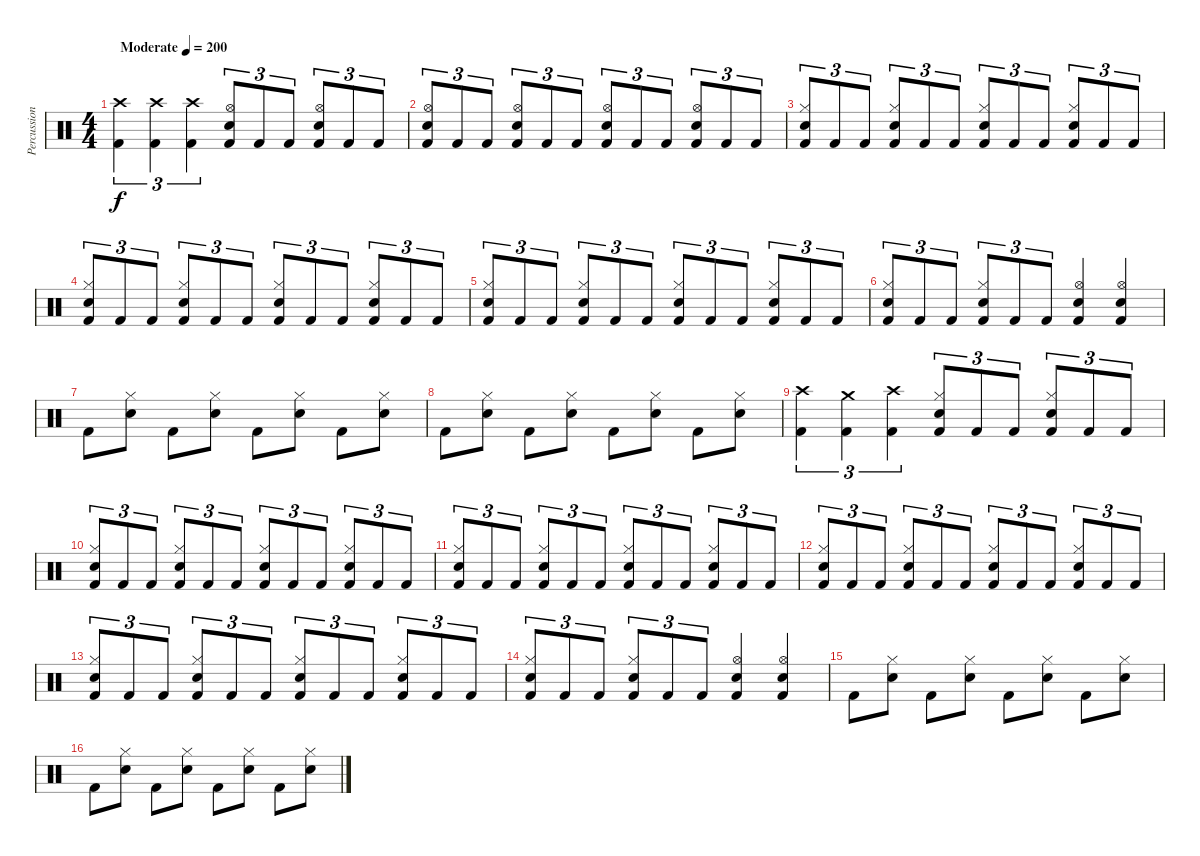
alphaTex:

\track ("Percussion" "Percussion") {instrument percussion}
\staff {score}
\articulation defaults
\ts (4 4)
\tempo (200 "Moderate")
\clef neutral
\ks c
("Crash high (hit)" "Kick (hit) 2").4{tu (3 2) dy f} ("Crash high (hit)" "Kick (hit) 2").4{tu (3 2)} ("Crash high (hit)" "Kick (hit) 2").4{tu (3 2)} ("Hi-Hat (open)" "Electric Snare (hit)" "Kick (hit) 2").8{tu (3 2)} "Kick (hit) 2".8{tu (3 2)} "Kick (hit) 2".8{tu (3 2)} ("Hi-Hat (open)" "Electric Snare (hit)" "Kick (hit) 2").8{tu (3 2)} "Kick (hit) 2".8{tu (3 2)} "Kick (hit) 2".8{tu (3 2)} |
("Hi-Hat (open)" "Electric Snare (hit)" "Kick (hit) 2").8{tu (3 2)} "Kick (hit) 2".8{tu (3 2)} "Kick (hit) 2".8{tu (3 2)} ("Hi-Hat (open)" "Electric Snare (hit)" "Kick (hit) 2").8{tu (3 2)} "Kick (hit) 2".8{tu (3 2)} "Kick (hit) 2".8{tu (3 2)} ("Hi-Hat (open)" "Electric Snare (hit)" "Kick (hit) 2").8{tu (3 2)} "Kick (hit) 2".8{tu (3 2)} "Kick (hit) 2".8{tu (3 2)} ("Hi-Hat (open)" "Electric Snare (hit)" "Kick (hit) 2").8{tu (3 2)} "Kick (hit) 2".8{tu (3 2)} "Kick (hit) 2".8{tu (3 2)} |
("Hi-Hat (closed)" "Snare (hit) 2" "Kick (hit) 2").8{tu (3 2)} "Kick (hit) 2".8{tu (3 2)} "Kick (hit) 2".8{tu (3 2)} ("Hi-Hat (closed)" "Snare (hit) 2" "Kick (hit) 2").8{tu (3 2)} "Kick (hit) 2".8{tu (3 2)} "Kick (hit) 2".8{tu (3 2)} ("Hi-Hat (closed)" "Snare (hit) 2" "Kick (hit) 2").8{tu (3 2)} "Kick (hit) 2".8{tu (3 2)} "Kick (hit) 2".8{tu (3 2)} ("Hi-Hat (closed)" "Snare (hit) 2" "Kick (hit) 2").8{tu (3 2)} "Kick (hit) 2".8{tu (3 2)} "Kick (hit) 2".8{tu (3 2)} |
("Hi-Hat (closed)" "Snare (hit) 2" "Kick (hit) 2").8{tu (3 2)} "Kick (hit) 2".8{tu (3 2)} "Kick (hit) 2".8{tu (3 2)} ("Hi-Hat (closed)" "Snare (hit) 2" "Kick (hit) 2").8{tu (3 2)} "Kick (hit) 2".8{tu (3 2)} "Kick (hit) 2".8{tu (3 2)} ("Hi-Hat (closed)" "Snare (hit) 2" "Kick (hit) 2").8{tu (3 2)} "Kick (hit) 2".8{tu (3 2)} "Kick (hit) 2".8{tu (3 2)} ("Hi-Hat (closed)" "Snare (hit) 2" "Kick (hit) 2").8{tu (3 2)} "Kick (hit) 2".8{tu (3 2)} "Kick (hit) 2".8{tu (3 2)} |
("Hi-Hat (closed)" "Snare (hit) 2" "Kick (hit) 2").8{tu (3 2)} "Kick (hit) 2".8{tu (3 2)} "Kick (hit) 2".8{tu (3 2)} ("Hi-Hat (closed)" "Snare (hit) 2" "Kick (hit) 2").8{tu (3 2)} "Kick (hit) 2".8{tu (3 2)} "Kick (hit) 2".8{tu (3 2)} ("Hi-Hat (closed)" "Snare (hit) 2" "Kick (hit) 2").8{tu (3 2)} "Kick (hit) 2".8{tu (3 2)} "Kick (hit) 2".8{tu (3 2)} ("Hi-Hat (closed)" "Snare (hit) 2" "Kick (hit) 2").8{tu (3 2)} "Kick (hit) 2".8{tu (3 2)} "Kick (hit) 2".8{tu (3 2)} |
("Hi-Hat (closed)" "Snare (hit) 2" "Kick (hit) 2").8{tu (3 2)} "Kick (hit) 2".8{tu (3 2)} "Kick (hit) 2".8{tu (3 2)} ("Hi-Hat (closed)" "Snare (hit) 2" "Kick (hit) 2").8{tu (3 2)} "Kick (hit) 2".8{tu (3 2)} "Kick (hit) 2".8{tu (3 2)} ("Hi-Hat (open)" "Snare (hit) 2" "Kick (hit) 2").4 ("Hi-Hat (open)" "Snare (hit) 2" "Kick (hit) 2").4 |
"Kick (hit) 2".8 ("Hi-Hat (closed)" "Snare (hit) 2").8 "Kick (hit) 2".8 ("Hi-Hat (closed)" "Snare (hit) 2").8 "Kick (hit) 2".8 ("Hi-Hat (closed)" "Snare (hit) 2").8 "Kick (hit) 2".8 ("Hi-Hat (closed)" "Snare (hit) 2").8 |
"Kick (hit) 2".8 ("Hi-Hat (closed)" "Snare (hit) 2").8 "Kick (hit) 2".8 ("Hi-Hat (closed)" "Snare (hit) 2").8 "Kick (hit) 2".8 ("Hi-Hat (closed)" "Snare (hit) 2").8 "Kick (hit) 2".8 ("Hi-Hat (closed)" "Snare (hit) 2").8 |
("Crash high (hit)" "Kick (hit) 2").4{tu (3 2)} ("Crash medium (hit)" "Kick (hit) 2").4{tu (3 2)} ("Crash high (hit)" "Kick (hit) 2").4{tu (3 2)} ("Hi-Hat (closed)" "Snare (hit) 2" "Kick (hit) 2").8{tu (3 2)} "Kick (hit) 2".8{tu (3 2)} "Kick (hit) 2".8{tu (3 2)} ("Hi-Hat (closed)" "Snare (hit) 2" "Kick (hit) 2").8{tu (3 2)} "Kick (hit) 2".8{tu (3 2)} "Kick (hit) 2".8{tu (3 2)} |
("Hi-Hat (closed)" "Snare (hit) 2" "Kick (hit) 2").8{tu (3 2)} "Kick (hit) 2".8{tu (3 2)} "Kick (hit) 2".8{tu (3 2)} ("Hi-Hat (closed)" "Snare (hit) 2" "Kick (hit) 2").8{tu (3 2)} "Kick (hit) 2".8{tu (3 2)} "Kick (hit) 2".8{tu (3 2)} ("Hi-Hat (closed)" "Snare (hit) 2" "Kick (hit) 2").8{tu (3 2)} "Kick (hit) 2".8{tu (3 2)} "Kick (hit) 2".8{tu (3 2)} ("Hi-Hat (closed)" "Snare (hit) 2" "Kick (hit) 2").8{tu (3 2)} "Kick (hit) 2".8{tu (3 2)} "Kick (hit) 2".8{tu (3 2)} |
("Hi-Hat (closed)" "Snare (hit) 2" "Kick (hit) 2").8{tu (3 2)} "Kick (hit) 2".8{tu (3 2)} "Kick (hit) 2".8{tu (3 2)} ("Hi-Hat (closed)" "Snare (hit) 2" "Kick (hit) 2").8{tu (3 2)} "Kick (hit) 2".8{tu (3 2)} "Kick (hit) 2".8{tu (3 2)} ("Hi-Hat (closed)" "Snare (hit) 2" "Kick (hit) 2").8{tu (3 2)} "Kick (hit) 2".8{tu (3 2)} "Kick (hit) 2".8{tu (3 2)} ("Hi-Hat (closed)" "Snare (hit) 2" "Kick (hit) 2").8{tu (3 2)} "Kick (hit) 2".8{tu (3 2)} "Kick (hit) 2".8{tu (3 2)} |
("Hi-Hat (closed)" "Snare (hit) 2" "Kick (hit) 2").8{tu (3 2)} "Kick (hit) 2".8{tu (3 2)} "Kick (hit) 2".8{tu (3 2)} ("Hi-Hat (closed)" "Snare (hit) 2" "Kick (hit) 2").8{tu (3 2)} "Kick (hit) 2".8{tu (3 2)} "Kick (hit) 2".8{tu (3 2)} ("Hi-Hat (closed)" "Snare (hit) 2" "Kick (hit) 2").8{tu (3 2)} "Kick (hit) 2".8{tu (3 2)} "Kick (hit) 2".8{tu (3 2)} ("Hi-Hat (closed)" "Snare (hit) 2" "Kick (hit) 2").8{tu (3 2)} "Kick (hit) 2".8{tu (3 2)} "Kick (hit) 2".8{tu (3 2)} |
("Hi-Hat (closed)" "Snare (hit) 2" "Kick (hit) 2").8{tu (3 2)} "Kick (hit) 2".8{tu (3 2)} "Kick (hit) 2".8{tu (3 2)} ("Hi-Hat (closed)" "Snare (hit) 2" "Kick (hit) 2").8{tu (3 2)} "Kick (hit) 2".8{tu (3 2)} "Kick (hit) 2".8{tu (3 2)} ("Hi-Hat (closed)" "Snare (hit) 2" "Kick (hit) 2").8{tu (3 2)} "Kick (hit) 2".8{tu (3 2)} "Kick (hit) 2".8{tu (3 2)} ("Hi-Hat (closed)" "Snare (hit) 2" "Kick (hit) 2").8{tu (3 2)} "Kick (hit) 2".8{tu (3 2)} "Kick (hit) 2".8{tu (3 2)} |
("Hi-Hat (closed)" "Snare (hit) 2" "Kick (hit) 2").8{tu (3 2)} "Kick (hit) 2".8{tu (3 2)} "Kick (hit) 2".8{tu (3 2)} ("Hi-Hat (closed)" "Snare (hit) 2" "Kick (hit) 2").8{tu (3 2)} "Kick (hit) 2".8{tu (3 2)} "Kick (hit) 2".8{tu (3 2)} ("Hi-Hat (open)" "Snare (hit) 2" "Kick (hit) 2").4 ("Hi-Hat (open)" "Snare (hit) 2" "Kick (hit) 2").4 |
"Kick (hit) 2".8 ("Hi-Hat (closed)" "Snare (hit) 2").8 "Kick (hit) 2".8 ("Hi-Hat (closed)" "Snare (hit) 2").8 "Kick (hit) 2".8 ("Hi-Hat (closed)" "Snare (hit) 2").8 "Kick (hit) 2".8 ("Hi-Hat (closed)" "Snare (hit) 2").8 |
"Kick (hit) 2".8 ("Hi-Hat (closed)" "Snare (hit) 2").8 "Kick (hit) 2".8 ("Hi-Hat (closed)" "Snare (hit) 2").8 "Kick (hit) 2".8 ("Hi-Hat (closed)" "Snare (hit) 2").8 "Kick (hit) 2".8 ("Hi-Hat (closed)" "Snare (hit) 2").8
